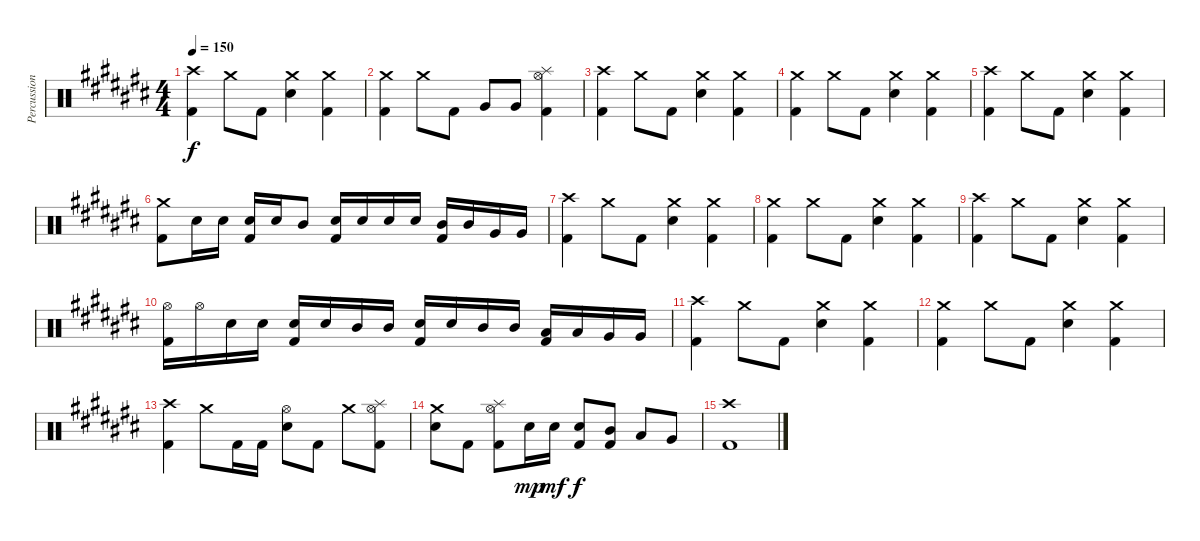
\track ("Percussion" "Percussion") {instrument percussion}
\staff {score}
\articulation defaults
\ts (4 4)
\tempo 150
\clef neutral
\ks c#
("Crash high (hit)" "Kick (hit) 2").4{dy f} "Crash medium (hit)".8 "Kick (hit) 2".8 ("Crash medium (hit)" "Electric Snare (hit)").4 ("Crash medium (hit)" "Kick (hit) 2").4 |
("Crash medium (hit)" "Kick (hit) 2").4 "Crash medium (hit)".8 "Kick (hit) 2".8 "Very Low Tom (hit)".8 "Very Low Tom (hit)".8 ("Splash (hit)" "Hi-Hat (open)" "Kick (hit) 2").4 |
("Crash high (hit)" "Kick (hit) 2").4 "Crash medium (hit)".8 "Kick (hit) 2".8 ("Crash medium (hit)" "Electric Snare (hit)").4 ("Crash medium (hit)" "Kick (hit) 2").4 |
("Crash medium (hit)" "Kick (hit) 2").4 "Crash medium (hit)".8 "Kick (hit) 2".8 ("Crash medium (hit)" "Electric Snare (hit)").4 ("Crash medium (hit)" "Kick (hit) 2").4 |
("Crash high (hit)" "Kick (hit) 2").4 "Crash medium (hit)".8 "Kick (hit) 2".8 ("Crash medium (hit)" "Electric Snare (hit)").4 ("Crash medium (hit)" "Kick (hit) 2").4 |
("Crash medium (hit)" "Kick (hit) 2").8 "Electric Snare (hit)".16 "Electric Snare (hit)".16 ("Electric Snare (hit)" "Kick (hit) 2").16 "Electric Snare (hit)".16 "Mid Tom (hit)".8 ("Electric Snare (hit)" "Kick (hit) 2").16 "Electric Snare (hit)".16 "Electric Snare (hit)".16 "Electric Snare (hit)".16 ("Mid Tom (hit)" "Kick (hit) 2").16 "Mid Tom (hit)".16 "Very Low Tom (hit)".16 "Very Low Tom (hit)".16 |
("Crash high (hit)" "Kick (hit) 2").4 "Crash medium (hit)".8 "Kick (hit) 2".8 ("Crash medium (hit)" "Electric Snare (hit)").4 ("Crash medium (hit)" "Kick (hit) 2").4 |
("Crash medium (hit)" "Kick (hit) 2").4 "Crash medium (hit)".8 "Kick (hit) 2".8 ("Crash medium (hit)" "Electric Snare (hit)").4 ("Crash medium (hit)" "Kick (hit) 2").4 |
("Crash high (hit)" "Kick (hit) 2").4 "Crash medium (hit)".8 "Kick (hit) 2".8 ("Crash medium (hit)" "Electric Snare (hit)").4 ("Crash medium (hit)" "Kick (hit) 2").4 |
("Hi-Hat (open)" "Kick (hit) 2").16 "Hi-Hat (open)".16 "Electric Snare (hit)".16 "Electric Snare (hit)".16 ("Electric Snare (hit)" "Kick (hit) 2").16 "Electric Snare (hit)".16 "Mid Tom (hit)".16 "Mid Tom (hit)".16 ("Electric Snare (hit)" "Kick (hit) 2").16 "Electric Snare (hit)".16 "Mid Tom (hit)".16 "Mid Tom (hit)".16 ("Low Tom (hit)" "Kick (hit) 2").16 "Low Tom (hit)".16 "Very Low Tom (hit)".16 "Very Low Tom (hit)".16 |
("Crash high (hit)" "Kick (hit) 2").4 "Crash medium (hit)".8 "Kick (hit) 2".8 ("Crash medium (hit)" "Electric Snare (hit)").4 ("Crash medium (hit)" "Kick (hit) 2").4 |
("Crash medium (hit)" "Kick (hit) 2").4 "Crash medium (hit)".8 "Kick (hit) 2".8 ("Crash medium (hit)" "Electric Snare (hit)").4 ("Crash medium (hit)" "Kick (hit) 2").4 |
("Crash high (hit)" "Kick (hit) 2").4 "Crash medium (hit)".8 "Kick (hit) 2".16 "Kick (hit) 2".16 ("Hi-Hat (open)" "Electric Snare (hit)").8 "Kick (hit) 2".8 "Crash medium (hit)".8 ("Hi-Hat (open)" "Splash (hit)" "Kick (hit) 2").8 |
("Crash medium (hit)" "Electric Snare (hit)").8 "Kick (hit) 2".8 ("Hi-Hat (open)" "Splash (hit)" "Kick (hit) 2").8 "Electric Snare (hit)".16{dy mp} "Electric Snare (hit)".16{dy mf} ("Electric Snare (hit)" "Kick (hit) 2").8{dy f} ("Mid Tom (hit)" "Kick (hit) 2").8 "Low Tom (hit)".8 "Very Low Tom (hit)".8 |
("Crash high (hit)" "Kick (hit) 2").1
